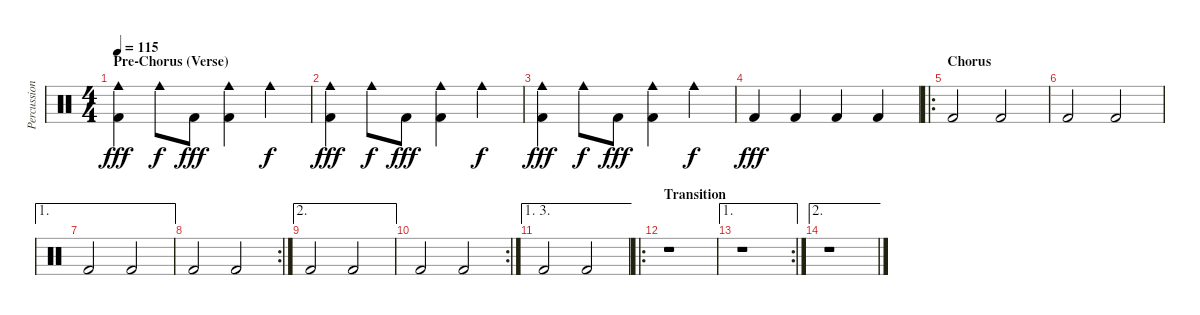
\track ("Percussion/Booster" "Percussion") {instrument percussion}
\staff {score}
\articulation defaults
\ts (4 4)
\section ("" "Pre-Chorus (Verse)")
\tempo 115
\clef neutral
\ks c
("Cowbell medium (hit)" "Kick (hit) 2").4{dy fff} "Cowbell medium (hit)".8{dy f} "Kick (hit) 2".8{dy fff} ("Cowbell medium (hit)" "Kick (hit) 2").4 "Cowbell medium (hit)".4{dy f} |
("Cowbell medium (hit)" "Kick (hit) 2").4{dy fff} "Cowbell medium (hit)".8{dy f} "Kick (hit) 2".8{dy fff} ("Cowbell medium (hit)" "Kick (hit) 2").4 "Cowbell medium (hit)".4{dy f} |
("Cowbell medium (hit)" "Kick (hit) 2").4{dy fff} "Cowbell medium (hit)".8{dy f} "Kick (hit) 2".8{dy fff} ("Cowbell medium (hit)" "Kick (hit) 2").4 "Cowbell medium (hit)".4{dy f} |
"Kick (hit) 2".4{dy fff} "Kick (hit) 2".4 "Kick (hit) 2".4 "Kick (hit) 2".4 |
\ro
\section ("" "Chorus")
"Kick (hit) 2".2 "Kick (hit) 2".2 |
"Kick (hit) 2".2 "Kick (hit) 2".2 |
\ae 1 "Kick (hit) 2".2 "Kick (hit) 2".2
|
\rc 2 "Kick (hit) 2".2 "Kick (hit) 2".2
|
\ae 2 "Kick (hit) 2".2 "Kick (hit) 2".2
|
\rc 2 "Kick (hit) 2".2 "Kick (hit) 2".2
|
\ae (1 3)
"Kick (hit) 2".2 "Kick (hit) 2".2 |
\ro
\section ("" "Transition")
r.1 |
\ae 1
\rc 2
r.1 |
\ae 2
r.1
